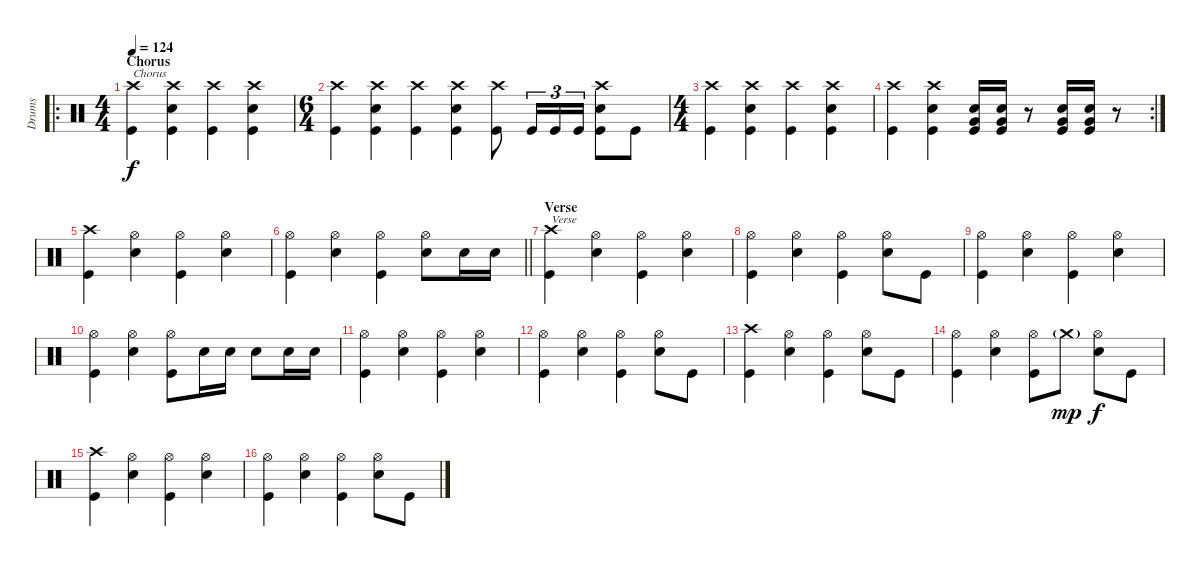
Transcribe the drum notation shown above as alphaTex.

\track ("Drums" "Drums") {instrument percussion}
\staff {score}
\articulation defaults
\ro
\ts (4 4)
\section ("" "Chorus")
\tempo 124
\clef neutral
\ks c
("Crash high (hit)" "Kick (hit)").4{txt "Chorus" dy f} ("Crash high (hit)" "Snare (hit) 2" "Kick (hit)").4 ("Crash high (hit)" "Kick (hit)").4 ("Crash high (hit)" "Snare (hit) 2" "Kick (hit)").4 |
\ts (6 4)
("Crash high (hit)" "Kick (hit)").4 ("Crash high (hit)" "Snare (hit) 2" "Kick (hit)").4 ("Crash high (hit)" "Kick (hit)").4 ("Crash high (hit)" "Snare (hit) 2" "Kick (hit)").4 ("Crash high (hit)" "Kick (hit)").8 "Kick (hit)".16{tu (3 2)} "Kick (hit)".16{tu (3 2)} "Kick (hit)".16{tu (3 2)} ("Crash high (hit)" "Snare (hit) 2" "Kick (hit)").8 "Kick (hit)".8 |
\ts (4 4)
("Crash high (hit)" "Kick (hit)").4 ("Crash high (hit)" "Snare (hit) 2" "Kick (hit)").4 ("Crash high (hit)" "Kick (hit)").4 ("Crash high (hit)" "Snare (hit) 2" "Kick (hit)").4 |
\rc 2
("Crash high (hit)" "Kick (hit)").4 ("Crash high (hit)" "Snare (hit) 2" "Kick (hit)").4 ("Snare (hit) 2" "Very Low Tom (hit)" "Kick (hit)").16 ("Snare (hit) 2" "Very Low Tom (hit)" "Kick (hit)").16 r.8 ("Snare (hit) 2" "Very Low Tom (hit)" "Kick (hit)").16 ("Snare (hit) 2" "Very Low Tom (hit)" "Kick (hit)").16 r.8 |
("Crash high (hit)" "Kick (hit)").4 ("Hi-Hat (open)" "Snare (hit) 2").4 ("Hi-Hat (open)" "Kick (hit)").4 ("Hi-Hat (open)" "Snare (hit) 2").4 |
\barLineRight lightlight
("Hi-Hat (open)" "Kick (hit)").4 ("Hi-Hat (open)" "Snare (hit) 2").4 ("Hi-Hat (open)" "Kick (hit)").4 ("Hi-Hat (open)" "Snare (hit) 2").8 "Snare (hit) 2".16 "Snare (hit) 2".16 |
\section ("" "Verse")
("Crash high (hit)" "Kick (hit)").4{txt "Verse"} ("Hi-Hat (open)" "Snare (hit) 2").4 ("Hi-Hat (open)" "Kick (hit)").4 ("Hi-Hat (open)" "Snare (hit) 2").4 |
("Hi-Hat (open)" "Kick (hit)").4 ("Hi-Hat (open)" "Snare (hit) 2").4 ("Hi-Hat (open)" "Kick (hit)").4 ("Hi-Hat (open)" "Snare (hit) 2").8 "Kick (hit)".8 |
("Hi-Hat (open)" "Kick (hit)").4 ("Hi-Hat (open)" "Snare (hit) 2").4 ("Hi-Hat (open)" "Kick (hit)").4 ("Hi-Hat (open)" "Snare (hit) 2").4 |
("Hi-Hat (open)" "Kick (hit)").4 ("Hi-Hat (open)" "Snare (hit) 2").4 ("Hi-Hat (open)" "Kick (hit)").8 "Snare (hit) 2".16 "Snare (hit) 2".16 "Snare (hit) 2".8 "Snare (hit) 2".16 "Snare (hit) 2".16 |
("Hi-Hat (open)" "Kick (hit)").4 ("Hi-Hat (open)" "Snare (hit) 2").4 ("Hi-Hat (open)" "Kick (hit)").4 ("Hi-Hat (open)" "Snare (hit) 2").4 |
("Hi-Hat (open)" "Kick (hit)").4 ("Hi-Hat (open)" "Snare (hit) 2").4 ("Hi-Hat (open)" "Kick (hit)").4 ("Hi-Hat (open)" "Snare (hit) 2").8 "Kick (hit)".8 |
("Crash high (hit)" "Kick (hit)").4 ("Hi-Hat (open)" "Snare (hit) 2").4 ("Hi-Hat (open)" "Kick (hit)").4 ("Hi-Hat (open)" "Snare (hit) 2").8 "Kick (hit)".8 |
("Hi-Hat (open)" "Kick (hit)").4 ("Hi-Hat (open)" "Snare (hit) 2").4 ("Hi-Hat (open)" "Kick (hit)").8 "Crash medium (hit)"{g}.8{dy mp} ("Hi-Hat (open)" "Snare (hit) 2").8{dy f} "Kick (hit)".8 |
("Crash high (hit)" "Kick (hit)").4 ("Hi-Hat (open)" "Snare (hit) 2").4 ("Hi-Hat (open)" "Kick (hit)").4 ("Hi-Hat (open)" "Snare (hit) 2").4 |
("Hi-Hat (open)" "Kick (hit)").4 ("Hi-Hat (open)" "Snare (hit) 2").4 ("Hi-Hat (open)" "Kick (hit)").4 ("Hi-Hat (open)" "Snare (hit) 2").8 "Kick (hit)".8
